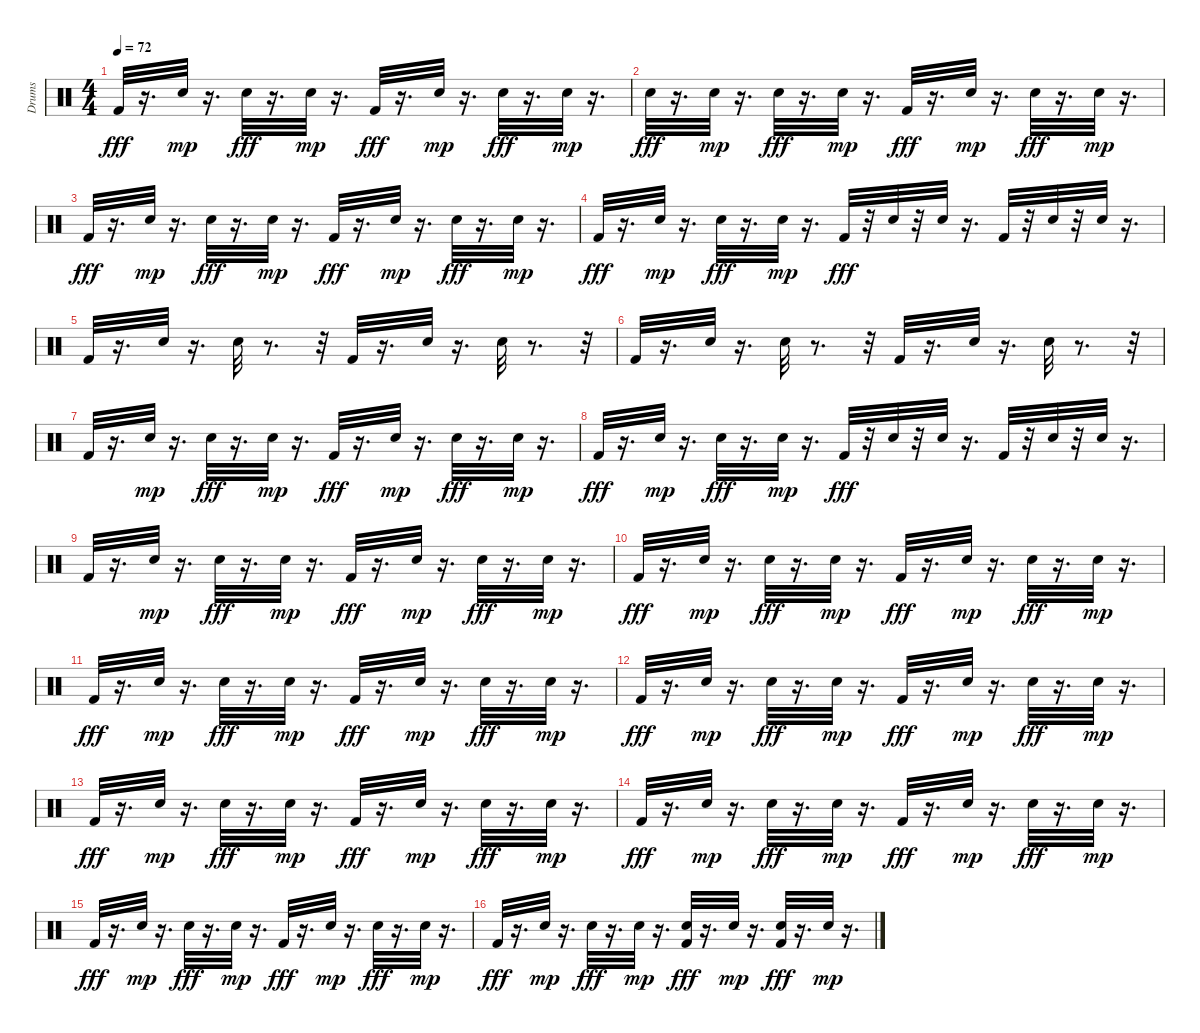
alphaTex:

\track ("Drums" "Drums") {instrument percussion}
\staff {score}
\articulation defaults
\ts (4 4)
\tempo 72
\clef neutral
\ks c "Kick (hit) 2".32{dy fff}
r.16{d} "Snare (hit) 2".32{dy mp} r.16{d} "Snare (hit) 2".32{dy fff} r.16{d} "Snare (hit) 2".32{dy mp} r.16{d} "Kick (hit) 2".32{dy fff} r.16{d} "Snare (hit) 2".32{dy mp} r.16{d} "Snare (hit) 2".32{dy fff} r.16{d} "Snare (hit) 2".32{dy mp} r.16{d} |
"Snare (hit) 2".32{dy fff} r.16{d} "Snare (hit) 2".32{dy mp} r.16{d} "Snare (hit) 2".32{dy fff} r.16{d} "Snare (hit) 2".32{dy mp} r.16{d} "Kick (hit) 2".32{dy fff} r.16{d} "Snare (hit) 2".32{dy mp} r.16{d} "Snare (hit) 2".32{dy fff} r.16{d} "Snare (hit) 2".32{dy mp} r.16{d} |
"Kick (hit) 2".32{dy fff} r.16{d} "Snare (hit) 2".32{dy mp} r.16{d} "Snare (hit) 2".32{dy fff} r.16{d} "Snare (hit) 2".32{dy mp} r.16{d} "Kick (hit) 2".32{dy fff} r.16{d} "Snare (hit) 2".32{dy mp} r.16{d} "Snare (hit) 2".32{dy fff} r.16{d} "Snare (hit) 2".32{dy mp} r.16{d} |
"Kick (hit) 2".32{dy fff} r.16{d} "Snare (hit) 2".32{dy mp} r.16{d} "Snare (hit) 2".32{dy fff} r.16{d} "Snare (hit) 2".32{dy mp} r.16{d} "Kick (hit) 2".32{dy fff} r.32 "Snare (hit) 2".32 r.32 "Snare (hit) 2".32 r.16{d} "Kick (hit) 2".32 r.32 "Snare (hit) 2".32 r.32 "Snare (hit) 2".32 r.16{d} |
"Kick (hit) 2".32 r.16{d} "Snare (hit) 2".32 r.16{d} "Snare (hit) 2".32 r.8{d} r.32 "Kick (hit) 2".32 r.16{d} "Snare (hit) 2".32 r.16{d} "Snare (hit) 2".32 r.8{d} r.32 |
"Kick (hit) 2".32 r.16{d} "Snare (hit) 2".32 r.16{d} "Snare (hit) 2".32 r.8{d} r.32 "Kick (hit) 2".32 r.16{d} "Snare (hit) 2".32 r.16{d} "Snare (hit) 2".32 r.8{d} r.32 |
"Kick (hit) 2".32 r.16{d} "Snare (hit) 2".32{dy mp} r.16{d} "Snare (hit) 2".32{dy fff} r.16{d} "Snare (hit) 2".32{dy mp} r.16{d} "Kick (hit) 2".32{dy fff} r.16{d} "Snare (hit) 2".32{dy mp} r.16{d} "Snare (hit) 2".32{dy fff} r.16{d} "Snare (hit) 2".32{dy mp} r.16{d} |
"Kick (hit) 2".32{dy fff} r.16{d} "Snare (hit) 2".32{dy mp} r.16{d} "Snare (hit) 2".32{dy fff} r.16{d} "Snare (hit) 2".32{dy mp} r.16{d} "Kick (hit) 2".32{dy fff} r.32 "Snare (hit) 2".32 r.32 "Snare (hit) 2".32 r.16{d} "Kick (hit) 2".32 r.32 "Snare (hit) 2".32 r.32 "Snare (hit) 2".32 r.16{d} |
"Kick (hit) 2".32 r.16{d} "Snare (hit) 2".32{dy mp} r.16{d} "Snare (hit) 2".32{dy fff} r.16{d} "Snare (hit) 2".32{dy mp} r.16{d} "Kick (hit) 2".32{dy fff} r.16{d} "Snare (hit) 2".32{dy mp} r.16{d} "Snare (hit) 2".32{dy fff} r.16{d} "Snare (hit) 2".32{dy mp} r.16{d} |
"Kick (hit) 2".32{dy fff} r.16{d} "Snare (hit) 2".32{dy mp} r.16{d} "Snare (hit) 2".32{dy fff} r.16{d} "Snare (hit) 2".32{dy mp} r.16{d} "Kick (hit) 2".32{dy fff} r.16{d} "Snare (hit) 2".32{dy mp} r.16{d} "Snare (hit) 2".32{dy fff} r.16{d} "Snare (hit) 2".32{dy mp} r.16{d} |
"Kick (hit) 2".32{dy fff} r.16{d} "Snare (hit) 2".32{dy mp} r.16{d} "Snare (hit) 2".32{dy fff} r.16{d} "Snare (hit) 2".32{dy mp} r.16{d} "Kick (hit) 2".32{dy fff} r.16{d} "Snare (hit) 2".32{dy mp} r.16{d} "Snare (hit) 2".32{dy fff} r.16{d} "Snare (hit) 2".32{dy mp} r.16{d} |
"Kick (hit) 2".32{dy fff} r.16{d} "Snare (hit) 2".32{dy mp} r.16{d} "Snare (hit) 2".32{dy fff} r.16{d} "Snare (hit) 2".32{dy mp} r.16{d} "Kick (hit) 2".32{dy fff} r.16{d} "Snare (hit) 2".32{dy mp} r.16{d} "Snare (hit) 2".32{dy fff} r.16{d} "Snare (hit) 2".32{dy mp} r.16{d} |
"Kick (hit) 2".32{dy fff} r.16{d} "Snare (hit) 2".32{dy mp} r.16{d} "Snare (hit) 2".32{dy fff} r.16{d} "Snare (hit) 2".32{dy mp} r.16{d} "Kick (hit) 2".32{dy fff} r.16{d} "Snare (hit) 2".32{dy mp} r.16{d} "Snare (hit) 2".32{dy fff} r.16{d} "Snare (hit) 2".32{dy mp} r.16{d} |
"Kick (hit) 2".32{dy fff} r.16{d} "Snare (hit) 2".32{dy mp} r.16{d} "Snare (hit) 2".32{dy fff} r.16{d} "Snare (hit) 2".32{dy mp} r.16{d} "Kick (hit) 2".32{dy fff} r.16{d} "Snare (hit) 2".32{dy mp} r.16{d} "Snare (hit) 2".32{dy fff} r.16{d} "Snare (hit) 2".32{dy mp} r.16{d} |
"Kick (hit) 2".32{dy fff} r.16{d} "Snare (hit) 2".32{dy mp} r.16{d} "Snare (hit) 2".32{dy fff} r.16{d} "Snare (hit) 2".32{dy mp} r.16{d} "Kick (hit) 2".32{dy fff} r.16{d} "Snare (hit) 2".32{dy mp} r.16{d} "Snare (hit) 2".32{dy fff} r.16{d} "Snare (hit) 2".32{dy mp} r.16{d} |
"Kick (hit) 2".32{dy fff} r.16{d} "Snare (hit) 2".32{dy mp} r.16{d} "Snare (hit) 2".32{dy fff} r.16{d} "Snare (hit) 2".32{dy mp} r.16{d} ("Kick (hit) 2" "Snare (hit) 2").32{dy fff} r.16{d} "Snare (hit) 2".32{dy mp} r.16{d} ("Snare (hit) 2" "Kick (hit) 2").32{dy fff} r.16{d} "Snare (hit) 2".32{dy mp} r.16{d}
